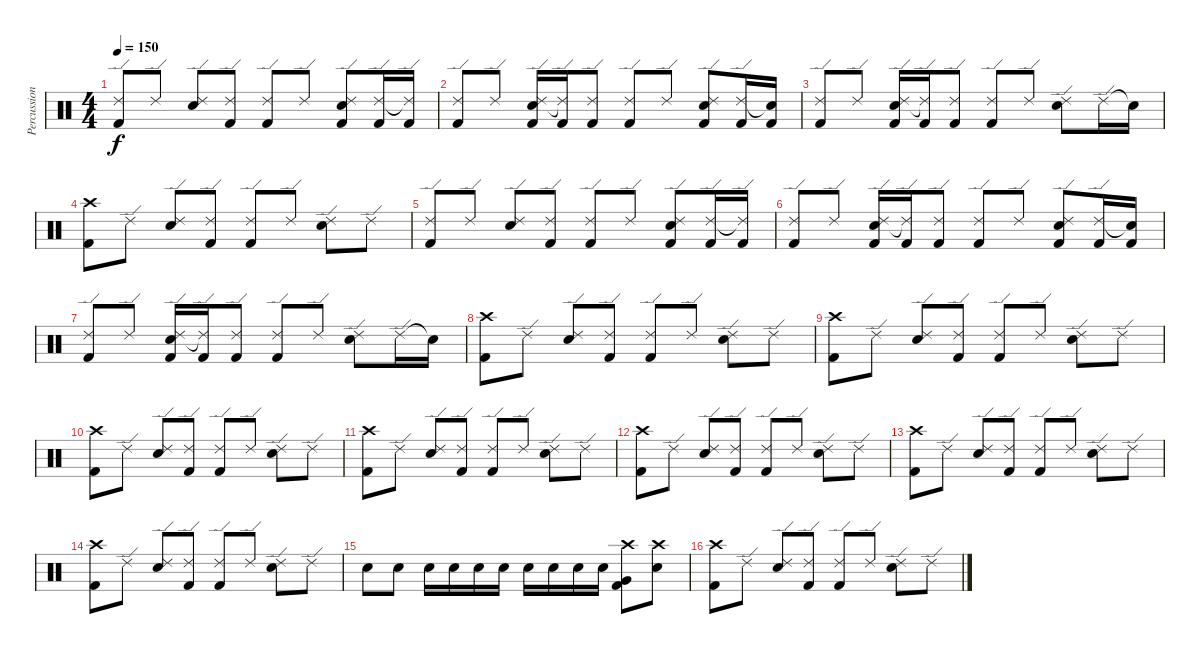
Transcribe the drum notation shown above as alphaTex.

\track ("Percussion" "Percussion") {instrument percussion}
\staff {score}
\articulation defaults
\ts (4 4)
\tempo 150
\clef neutral
\ks c
("Ride (edge) 2" "Kick (hit) 2").8{dy f} "Ride (edge) 2".8 ("Ride (edge) 2" "Electric Snare (hit)").8 ("Ride (edge) 2" "Kick (hit) 2").8 ("Ride (edge) 2" "Kick (hit) 2").8 "Ride (edge) 2".8 ("Electric Snare (hit)" "Ride (edge) 2" "Kick (hit) 2").8 ("Ride (edge) 2" "Kick (hit) 2").16 ("Ride (edge) 2"{t} "Kick (hit) 2").16 |
("Ride (edge) 2" "Kick (hit) 2").8 "Ride (edge) 2".8 ("Electric Snare (hit)" "Ride (edge) 2" "Kick (hit) 2").16 ("Ride (edge) 2"{t} "Kick (hit) 2").16 ("Ride (edge) 2" "Kick (hit) 2").8 ("Ride (edge) 2" "Kick (hit) 2").8 "Ride (edge) 2".8 ("Electric Snare (hit)" "Ride (edge) 2" "Kick (hit) 2").8 ("Ride (edge) 2" "Kick (hit) 2").16 ("Snare (hit)"{t} "Kick (hit) 2").16 |
("Ride (edge) 2" "Kick (hit) 2").8 "Ride (edge) 2".8 ("Electric Snare (hit)" "Ride (edge) 2" "Kick (hit) 2").16 ("Ride (edge) 2"{t} "Kick (hit) 2").16 ("Ride (edge) 2" "Kick (hit) 2").8 ("Ride (edge) 2" "Kick (hit) 2").8 "Ride (edge) 2".8 ("Electric Snare (hit)" "Ride (edge) 2").8 "Ride (edge) 2".16 "Snare (hit)"{t}.16 |
("Crash high (hit)" "Kick (hit) 2").8 "Ride (edge) 2".8 ("Ride (edge) 2" "Electric Snare (hit)").8 ("Ride (edge) 2" "Kick (hit) 2").8 ("Ride (edge) 2" "Kick (hit) 2").8 "Ride (edge) 2".8 ("Ride (edge) 2" "Electric Snare (hit)").8 "Ride (edge) 2".8 |
("Ride (edge) 2" "Kick (hit) 2").8 "Ride (edge) 2".8 ("Ride (edge) 2" "Electric Snare (hit)").8 ("Ride (edge) 2" "Kick (hit) 2").8 ("Ride (edge) 2" "Kick (hit) 2").8 "Ride (edge) 2".8 ("Electric Snare (hit)" "Ride (edge) 2" "Kick (hit) 2").8 ("Ride (edge) 2" "Kick (hit) 2").16 ("Ride (edge) 2"{t} "Kick (hit) 2").16 |
("Ride (edge) 2" "Kick (hit) 2").8 "Ride (edge) 2".8 ("Electric Snare (hit)" "Ride (edge) 2" "Kick (hit) 2").16 ("Ride (edge) 2"{t} "Kick (hit) 2").16 ("Ride (edge) 2" "Kick (hit) 2").8 ("Ride (edge) 2" "Kick (hit) 2").8 "Ride (edge) 2".8 ("Electric Snare (hit)" "Ride (edge) 2" "Kick (hit) 2").8 ("Ride (edge) 2" "Kick (hit) 2").16 ("Snare (hit)"{t} "Kick (hit) 2").16 |
("Ride (edge) 2" "Kick (hit) 2").8 "Ride (edge) 2".8 ("Electric Snare (hit)" "Ride (edge) 2" "Kick (hit) 2").16 ("Ride (edge) 2"{t} "Kick (hit) 2").16 ("Ride (edge) 2" "Kick (hit) 2").8 ("Ride (edge) 2" "Kick (hit) 2").8 "Ride (edge) 2".8 ("Electric Snare (hit)" "Ride (edge) 2").8 "Ride (edge) 2".16 "Snare (hit)"{t}.16 |
("Crash high (hit)" "Kick (hit) 2").8 "Ride (edge) 2".8 ("Ride (edge) 2" "Electric Snare (hit)").8 ("Ride (edge) 2" "Kick (hit) 2").8 ("Ride (edge) 2" "Kick (hit) 2").8 "Ride (edge) 2".8 ("Ride (edge) 2" "Electric Snare (hit)").8 "Ride (edge) 2".8 |
("Crash high (hit)" "Kick (hit) 2").8 "Ride (edge) 2".8 ("Ride (edge) 2" "Electric Snare (hit)").8 ("Ride (edge) 2" "Kick (hit) 2").8 ("Ride (edge) 2" "Kick (hit) 2").8 "Ride (edge) 2".8 ("Ride (edge) 2" "Electric Snare (hit)").8 "Ride (edge) 2".8 |
("Crash high (hit)" "Kick (hit) 2").8 "Ride (edge) 2".8 ("Ride (edge) 2" "Electric Snare (hit)").8 ("Ride (edge) 2" "Kick (hit) 2").8 ("Ride (edge) 2" "Kick (hit) 2").8 "Ride (edge) 2".8 ("Ride (edge) 2" "Electric Snare (hit)").8 "Ride (edge) 2".8 |
("Crash high (hit)" "Kick (hit) 2").8 "Ride (edge) 2".8 ("Ride (edge) 2" "Electric Snare (hit)").8 ("Ride (edge) 2" "Kick (hit) 2").8 ("Ride (edge) 2" "Kick (hit) 2").8 "Ride (edge) 2".8 ("Ride (edge) 2" "Electric Snare (hit)").8 "Ride (edge) 2".8 |
("Crash high (hit)" "Kick (hit) 2").8 "Ride (edge) 2".8 ("Ride (edge) 2" "Electric Snare (hit)").8 ("Ride (edge) 2" "Kick (hit) 2").8 ("Ride (edge) 2" "Kick (hit) 2").8 "Ride (edge) 2".8 ("Ride (edge) 2" "Electric Snare (hit)").8 "Ride (edge) 2".8 |
("Crash high (hit)" "Kick (hit) 2").8 "Ride (edge) 2".8 ("Ride (edge) 2" "Electric Snare (hit)").8 ("Ride (edge) 2" "Kick (hit) 2").8 ("Ride (edge) 2" "Kick (hit) 2").8 "Ride (edge) 2".8 ("Ride (edge) 2" "Electric Snare (hit)").8 "Ride (edge) 2".8 |
("Crash high (hit)" "Kick (hit) 2").8 "Ride (edge) 2".8 ("Ride (edge) 2" "Electric Snare (hit)").8 ("Ride (edge) 2" "Kick (hit) 2").8 ("Ride (edge) 2" "Kick (hit) 2").8 "Ride (edge) 2".8 ("Ride (edge) 2" "Electric Snare (hit)").8 "Ride (edge) 2".8 |
"Electric Snare (hit)".8 "Electric Snare (hit)".8 "Electric Snare (hit)".16 "Electric Snare (hit)".16 "Electric Snare (hit)".16 "Electric Snare (hit)".16 "Electric Snare (hit)".16 "Electric Snare (hit)".16 "Electric Snare (hit)".16 "Electric Snare (hit)".16 ("Crash high (hit)" "Very Low Tom (hit)" "Kick (hit) 2").8 ("Crash high (hit)" "Electric Snare (hit)").8 |
("Crash high (hit)" "Kick (hit) 2").8 "Ride (edge) 2".8 ("Ride (edge) 2" "Electric Snare (hit)").8 ("Ride (edge) 2" "Kick (hit) 2").8 ("Ride (edge) 2" "Kick (hit) 2").8 "Ride (edge) 2".8 ("Ride (edge) 2" "Electric Snare (hit)").8 "Ride (edge) 2".8
